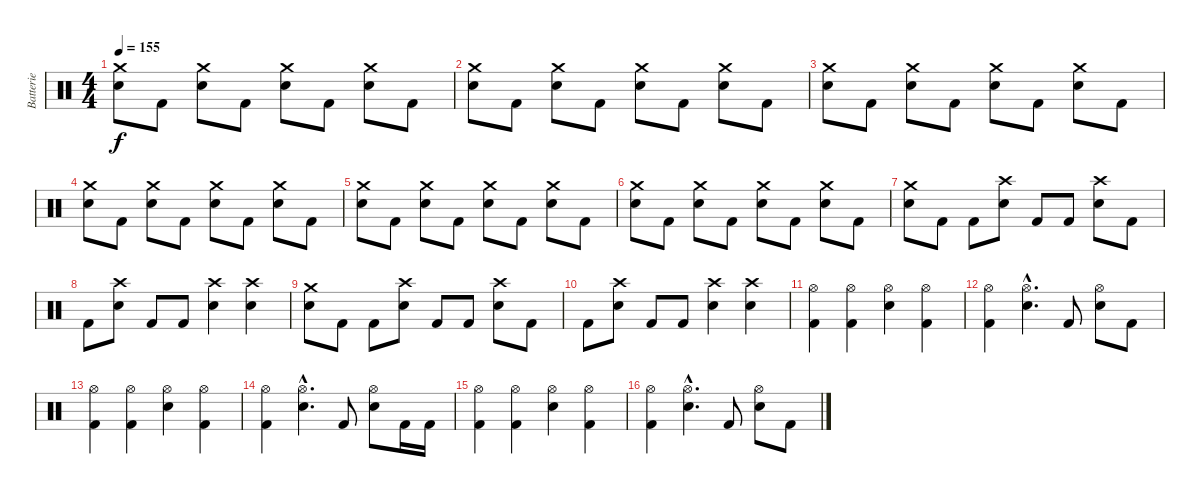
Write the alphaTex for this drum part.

\track ("Batterie" "Batterie") {instrument percussion}
\staff {score}
\articulation defaults
\ts (4 4)
\section ("" "")
\tempo 155
\clef neutral
\ks c
("Crash medium (hit)" "Electric Snare (hit)").8{dy f} "Kick (hit) 2".8 ("Crash medium (hit)" "Electric Snare (hit)").8 "Kick (hit) 2".8 ("Crash medium (hit)" "Electric Snare (hit)").8 "Kick (hit) 2".8 ("Crash medium (hit)" "Electric Snare (hit)").8 "Kick (hit) 2".8 |
("Crash medium (hit)" "Electric Snare (hit)").8 "Kick (hit) 2".8 ("Crash medium (hit)" "Electric Snare (hit)").8 "Kick (hit) 2".8 ("Crash medium (hit)" "Electric Snare (hit)").8 "Kick (hit) 2".8 ("Crash medium (hit)" "Electric Snare (hit)").8 "Kick (hit) 2".8 |
("Crash medium (hit)" "Electric Snare (hit)").8 "Kick (hit) 2".8 ("Crash medium (hit)" "Electric Snare (hit)").8 "Kick (hit) 2".8 ("Crash medium (hit)" "Electric Snare (hit)").8 "Kick (hit) 2".8 ("Crash medium (hit)" "Electric Snare (hit)").8 "Kick (hit) 2".8 |
("Crash medium (hit)" "Electric Snare (hit)").8 "Kick (hit) 2".8 ("Crash medium (hit)" "Electric Snare (hit)").8 "Kick (hit) 2".8 ("Crash medium (hit)" "Electric Snare (hit)").8 "Kick (hit) 2".8 ("Crash medium (hit)" "Electric Snare (hit)").8 "Kick (hit) 2".8 |
("Crash medium (hit)" "Electric Snare (hit)").8 "Kick (hit) 2".8 ("Crash medium (hit)" "Electric Snare (hit)").8 "Kick (hit) 2".8 ("Crash medium (hit)" "Electric Snare (hit)").8 "Kick (hit) 2".8 ("Crash medium (hit)" "Electric Snare (hit)").8 "Kick (hit) 2".8 |
("Crash medium (hit)" "Electric Snare (hit)").8 "Kick (hit) 2".8 ("Crash medium (hit)" "Electric Snare (hit)").8 "Kick (hit) 2".8 ("Crash medium (hit)" "Electric Snare (hit)").8 "Kick (hit) 2".8 ("Crash medium (hit)" "Electric Snare (hit)").8 "Kick (hit) 2".8 |
("Crash medium (hit)" "Electric Snare (hit)").8 "Kick (hit) 2".8 "Kick (hit) 2".8 ("Crash high (hit)" "Electric Snare (hit)").8 "Kick (hit) 2".8 "Kick (hit) 2".8 ("Crash high (hit)" "Electric Snare (hit)").8 "Kick (hit) 2".8 |
"Kick (hit) 2".8 ("Crash high (hit)" "Electric Snare (hit)").8 "Kick (hit) 2".8 "Kick (hit) 2".8 ("Crash high (hit)" "Electric Snare (hit)").4 ("Crash high (hit)" "Electric Snare (hit)").4 |
("Crash medium (hit)" "Electric Snare (hit)").8 "Kick (hit) 2".8 "Kick (hit) 2".8 ("Crash high (hit)" "Electric Snare (hit)").8 "Kick (hit) 2".8 "Kick (hit) 2".8 ("Crash high (hit)" "Electric Snare (hit)").8 "Kick (hit) 2".8 |
"Kick (hit) 2".8 ("Crash high (hit)" "Electric Snare (hit)").8 "Kick (hit) 2".8 "Kick (hit) 2".8 ("Crash high (hit)" "Electric Snare (hit)").4 ("Crash high (hit)" "Electric Snare (hit)").4 |
\section ("" "")
("Hi-Hat (open)" "Kick (hit) 2").4 ("Hi-Hat (open)" "Kick (hit) 2").4 ("Hi-Hat (open)" "Electric Snare (hit)").4 ("Hi-Hat (open)" "Kick (hit) 2").4 |
("Hi-Hat (open)" "Kick (hit) 2").4 ("Hi-Hat (open)"{hac} "Electric Snare (hit)"{hac}).4{d} "Kick (hit) 2".8 ("Hi-Hat (open)" "Electric Snare (hit)").8 "Kick (hit) 2".8 |
("Hi-Hat (open)" "Kick (hit) 2").4 ("Hi-Hat (open)" "Kick (hit) 2").4 ("Hi-Hat (open)" "Electric Snare (hit)").4 ("Hi-Hat (open)" "Kick (hit) 2").4 |
("Hi-Hat (open)" "Kick (hit) 2").4 ("Hi-Hat (open)"{hac} "Electric Snare (hit)"{hac}).4{d} "Kick (hit) 2".8 ("Hi-Hat (open)" "Electric Snare (hit)").8 "Kick (hit) 2".16 "Kick (hit) 2".16 |
("Hi-Hat (open)" "Kick (hit) 2").4 ("Hi-Hat (open)" "Kick (hit) 2").4 ("Hi-Hat (open)" "Electric Snare (hit)").4 ("Hi-Hat (open)" "Kick (hit) 2").4 |
("Hi-Hat (open)" "Kick (hit) 2").4 ("Hi-Hat (open)"{hac} "Electric Snare (hit)"{hac}).4{d} "Kick (hit) 2".8 ("Hi-Hat (open)" "Electric Snare (hit)").8 "Kick (hit) 2".8
